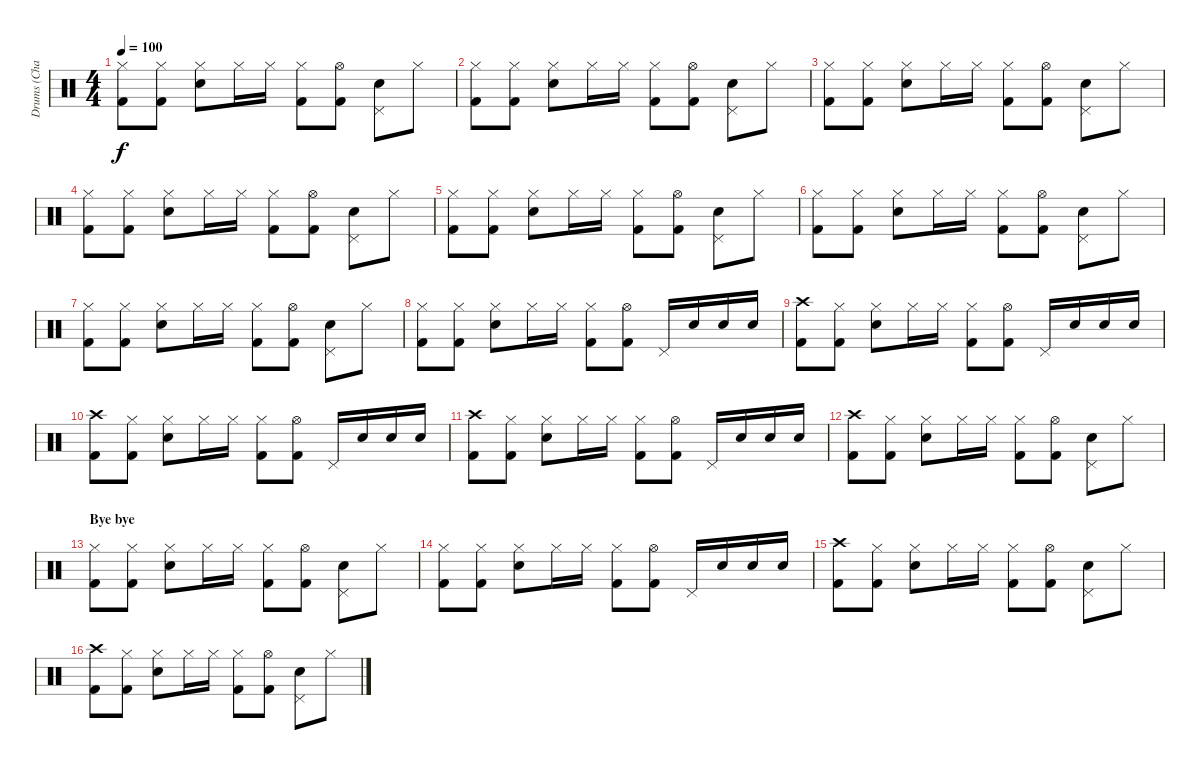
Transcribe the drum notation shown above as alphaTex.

\track ("Drums (Charlie)" "Drums (Cha") {instrument percussion}
\staff {score}
\articulation defaults
\ts (4 4)
\tempo 100
\clef neutral
\ks c
("Hi-Hat (closed)" "Kick (hit) 2").8{dy f} ("Hi-Hat (closed)" "Kick (hit) 2").8 ("Hi-Hat (closed)" "Electric Snare (hit)").8 "Hi-Hat (closed)".16 "Hi-Hat (closed)".16 ("Hi-Hat (closed)" "Kick (hit) 2").8 ("Hi-Hat (open)" "Kick (hit) 2").8 ("Pedal Hi-Hat (hit)" "Electric Snare (hit)").8 "Hi-Hat (closed)".8 |
("Hi-Hat (closed)" "Kick (hit) 2").8 ("Hi-Hat (closed)" "Kick (hit) 2").8 ("Hi-Hat (closed)" "Electric Snare (hit)").8 "Hi-Hat (closed)".16 "Hi-Hat (closed)".16 ("Hi-Hat (closed)" "Kick (hit) 2").8 ("Hi-Hat (open)" "Kick (hit) 2").8 ("Pedal Hi-Hat (hit)" "Electric Snare (hit)").8 "Hi-Hat (closed)".8 |
("Hi-Hat (closed)" "Kick (hit) 2").8 ("Hi-Hat (closed)" "Kick (hit) 2").8 ("Hi-Hat (closed)" "Electric Snare (hit)").8 "Hi-Hat (closed)".16 "Hi-Hat (closed)".16 ("Hi-Hat (closed)" "Kick (hit) 2").8 ("Hi-Hat (open)" "Kick (hit) 2").8 ("Pedal Hi-Hat (hit)" "Electric Snare (hit)").8 "Hi-Hat (closed)".8 |
("Hi-Hat (closed)" "Kick (hit) 2").8 ("Hi-Hat (closed)" "Kick (hit) 2").8 ("Hi-Hat (closed)" "Electric Snare (hit)").8 "Hi-Hat (closed)".16 "Hi-Hat (closed)".16 ("Hi-Hat (closed)" "Kick (hit) 2").8 ("Hi-Hat (open)" "Kick (hit) 2").8 ("Pedal Hi-Hat (hit)" "Electric Snare (hit)").8 "Hi-Hat (closed)".8 |
("Hi-Hat (closed)" "Kick (hit) 2").8 ("Hi-Hat (closed)" "Kick (hit) 2").8 ("Hi-Hat (closed)" "Electric Snare (hit)").8 "Hi-Hat (closed)".16 "Hi-Hat (closed)".16 ("Hi-Hat (closed)" "Kick (hit) 2").8 ("Hi-Hat (open)" "Kick (hit) 2").8 ("Pedal Hi-Hat (hit)" "Electric Snare (hit)").8 "Hi-Hat (closed)".8 |
("Hi-Hat (closed)" "Kick (hit) 2").8 ("Hi-Hat (closed)" "Kick (hit) 2").8 ("Hi-Hat (closed)" "Electric Snare (hit)").8 "Hi-Hat (closed)".16 "Hi-Hat (closed)".16 ("Hi-Hat (closed)" "Kick (hit) 2").8 ("Hi-Hat (open)" "Kick (hit) 2").8 ("Pedal Hi-Hat (hit)" "Electric Snare (hit)").8 "Hi-Hat (closed)".8 |
("Hi-Hat (closed)" "Kick (hit) 2").8 ("Hi-Hat (closed)" "Kick (hit) 2").8 ("Hi-Hat (closed)" "Electric Snare (hit)").8 "Hi-Hat (closed)".16 "Hi-Hat (closed)".16 ("Hi-Hat (closed)" "Kick (hit) 2").8 ("Hi-Hat (open)" "Kick (hit) 2").8 ("Pedal Hi-Hat (hit)" "Electric Snare (hit)").8 "Hi-Hat (closed)".8 |
("Hi-Hat (closed)" "Kick (hit) 2").8 ("Hi-Hat (closed)" "Kick (hit) 2").8 ("Hi-Hat (closed)" "Electric Snare (hit)").8 "Hi-Hat (closed)".16 "Hi-Hat (closed)".16 ("Hi-Hat (closed)" "Kick (hit) 2").8 ("Hi-Hat (open)" "Kick (hit) 2").8 "Pedal Hi-Hat (hit)".16 "Electric Snare (hit)".16 "Electric Snare (hit)".16 "Electric Snare (hit)".16 |
("Crash high (hit)" "Kick (hit) 2").8 ("Hi-Hat (closed)" "Kick (hit) 2").8 ("Hi-Hat (closed)" "Electric Snare (hit)").8 "Hi-Hat (closed)".16 "Hi-Hat (closed)".16 ("Hi-Hat (closed)" "Kick (hit) 2").8 ("Hi-Hat (open)" "Kick (hit) 2").8 "Pedal Hi-Hat (hit)".16 "Electric Snare (hit)".16 "Electric Snare (hit)".16 "Electric Snare (hit)".16 |
("Crash high (hit)" "Kick (hit) 2").8 ("Hi-Hat (closed)" "Kick (hit) 2").8 ("Hi-Hat (closed)" "Electric Snare (hit)").8 "Hi-Hat (closed)".16 "Hi-Hat (closed)".16 ("Hi-Hat (closed)" "Kick (hit) 2").8 ("Hi-Hat (open)" "Kick (hit) 2").8 "Pedal Hi-Hat (hit)".16 "Electric Snare (hit)".16 "Electric Snare (hit)".16 "Electric Snare (hit)".16 |
("Crash high (hit)" "Kick (hit) 2").8 ("Hi-Hat (closed)" "Kick (hit) 2").8 ("Hi-Hat (closed)" "Electric Snare (hit)").8 "Hi-Hat (closed)".16 "Hi-Hat (closed)".16 ("Hi-Hat (closed)" "Kick (hit) 2").8 ("Hi-Hat (open)" "Kick (hit) 2").8 "Pedal Hi-Hat (hit)".16 "Electric Snare (hit)".16 "Electric Snare (hit)".16 "Electric Snare (hit)".16 |
("Crash high (hit)" "Kick (hit) 2").8 ("Hi-Hat (closed)" "Kick (hit) 2").8 ("Hi-Hat (closed)" "Electric Snare (hit)").8 "Hi-Hat (closed)".16 "Hi-Hat (closed)".16 ("Hi-Hat (closed)" "Kick (hit) 2").8 ("Hi-Hat (open)" "Kick (hit) 2").8 ("Pedal Hi-Hat (hit)" "Electric Snare (hit)").8 "Hi-Hat (closed)".8 |
\section ("" "Bye bye")
("Hi-Hat (closed)" "Kick (hit) 2").8 ("Hi-Hat (closed)" "Kick (hit) 2").8 ("Hi-Hat (closed)" "Electric Snare (hit)").8 "Hi-Hat (closed)".16 "Hi-Hat (closed)".16 ("Hi-Hat (closed)" "Kick (hit) 2").8 ("Hi-Hat (open)" "Kick (hit) 2").8 ("Pedal Hi-Hat (hit)" "Electric Snare (hit)").8 "Hi-Hat (closed)".8 |
("Hi-Hat (closed)" "Kick (hit) 2").8 ("Hi-Hat (closed)" "Kick (hit) 2").8 ("Hi-Hat (closed)" "Electric Snare (hit)").8 "Hi-Hat (closed)".16 "Hi-Hat (closed)".16 ("Hi-Hat (closed)" "Kick (hit) 2").8 ("Hi-Hat (open)" "Kick (hit) 2").8 "Pedal Hi-Hat (hit)".16 "Electric Snare (hit)".16 "Electric Snare (hit)".16 "Electric Snare (hit)".16 |
("Crash high (hit)" "Kick (hit) 2").8 ("Hi-Hat (closed)" "Kick (hit) 2").8 ("Hi-Hat (closed)" "Electric Snare (hit)").8 "Hi-Hat (closed)".16 "Hi-Hat (closed)".16 ("Hi-Hat (closed)" "Kick (hit) 2").8 ("Hi-Hat (open)" "Kick (hit) 2").8 ("Pedal Hi-Hat (hit)" "Electric Snare (hit)").8 "Hi-Hat (closed)".8 |
("Crash high (hit)" "Kick (hit) 2").8 ("Hi-Hat (closed)" "Kick (hit) 2").8 ("Hi-Hat (closed)" "Electric Snare (hit)").8 "Hi-Hat (closed)".16 "Hi-Hat (closed)".16 ("Hi-Hat (closed)" "Kick (hit) 2").8 ("Hi-Hat (open)" "Kick (hit) 2").8 ("Pedal Hi-Hat (hit)" "Electric Snare (hit)").8 "Hi-Hat (closed)".8
